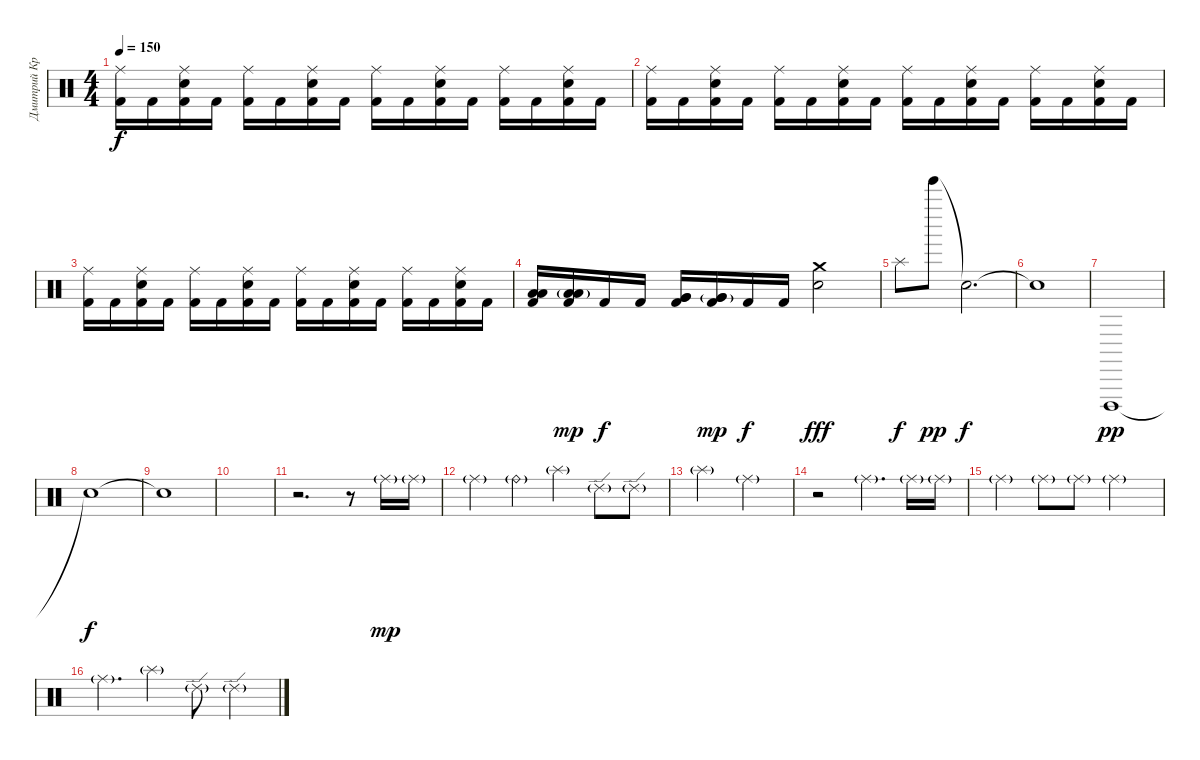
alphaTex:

\track ("Дмитрий Кривенков" "Дмитрий Кр") {instrument percussion}
\staff {score}
\articulation defaults
\ts (4 4)
\tempo 150
\clef neutral
\ks c
("Ride (middle)" "Kick (hit) 2").16{dy f} "Kick (hit) 2".16 ("Ride (middle)" "Electric Snare (hit)" "Kick (hit) 2").16 "Kick (hit) 2".16 ("Ride (middle)" "Kick (hit) 2").16 "Kick (hit) 2".16 ("Ride (middle)" "Electric Snare (hit)" "Kick (hit) 2").16 "Kick (hit) 2".16 ("Ride (middle)" "Kick (hit) 2").16 "Kick (hit) 2".16 ("Ride (middle)" "Electric Snare (hit)" "Kick (hit) 2").16 "Kick (hit) 2".16 ("Ride (middle)" "Kick (hit) 2").16 "Kick (hit) 2".16 ("Ride (middle)" "Electric Snare (hit)" "Kick (hit) 2").16 "Kick (hit) 2".16 |
("Ride (middle)" "Kick (hit) 2").16 "Kick (hit) 2".16 ("Ride (middle)" "Electric Snare (hit)" "Kick (hit) 2").16 "Kick (hit) 2".16 ("Ride (middle)" "Kick (hit) 2").16 "Kick (hit) 2".16 ("Ride (middle)" "Electric Snare (hit)" "Kick (hit) 2").16 "Kick (hit) 2".16 ("Ride (middle)" "Kick (hit) 2").16 "Kick (hit) 2".16 ("Ride (middle)" "Electric Snare (hit)" "Kick (hit) 2").16 "Kick (hit) 2".16 ("Ride (middle)" "Kick (hit) 2").16 "Kick (hit) 2".16 ("Ride (middle)" "Electric Snare (hit)" "Kick (hit) 2").16 "Kick (hit) 2".16 |
("Ride (middle)" "Kick (hit) 2").16 "Kick (hit) 2".16 ("Ride (middle)" "Electric Snare (hit)" "Kick (hit) 2").16 "Kick (hit) 2".16 ("Ride (middle)" "Kick (hit) 2").16 "Kick (hit) 2".16 ("Ride (middle)" "Electric Snare (hit)" "Kick (hit) 2").16 "Kick (hit) 2".16 ("Ride (middle)" "Kick (hit) 2").16 "Kick (hit) 2".16 ("Ride (middle)" "Electric Snare (hit)" "Kick (hit) 2").16 "Kick (hit) 2".16 ("Ride (middle)" "Kick (hit) 2").16 "Kick (hit) 2".16 ("Ride (middle)" "Electric Snare (hit)" "Kick (hit) 2").16 "Kick (hit) 2".16 |
("Low Tom (hit)" "Low Tom (hit)" "Kick (hit) 2").16 ("Low Tom (hit)"{g} "Low Tom (hit)"{g} "Kick (hit) 2").16{dy mp} "Kick (hit) 2".16{dy f} "Kick (hit) 2".16 ("Very Low Tom (hit)" "Very Low Tom (hit)" "Kick (hit) 2").16 ("Very Low Tom (hit)"{g} "Very Low Tom (hit)"{g} "Kick (hit) 2").16{dy mp} "Kick (hit) 2".16{dy f} "Kick (hit) 2".16 ("Crash medium (hit)" "Electric Snare (hit)").2{dy fff} |
"Splash (hit)".8{dy f} "Tinkle Bell (hit)".8{dy pp} "Snare (hit)"{t}.2{d dy f} |
"Snare (hit)"{t}.1{volume 0} |
"Cuica (open)".1{dy pp volume 15} |
"Snare (hit)"{t}.1{dy f} |
"Snare (hit)"{t}.1 |
|
r.2{d} r.8 "Ride (middle)"{g}.16{dy mp} "Ride (middle)"{g}.16 |
"Ride (middle)"{g}.4 "Ride (bell)"{g}.4 "Splash (hit)"{g}.4 "Ride (edge) 2"{g}.8 "Ride (edge) 2"{g}.8 |
"Splash (hit)"{g}.2 "Ride (middle)"{g}.2 |
r.2 "Ride (middle)"{g}.4{d} "Ride (middle)"{g}.16 "Ride (middle)"{g}.16 |
"Ride (middle)"{g}.4 "Ride (middle)"{g}.8 "Ride (middle)"{g}.8 "Ride (middle)"{g}.2 |
"Ride (middle)"{g}.4{d} "Splash (hit)"{g}.4 "Ride (edge) 2"{g}.8 "Ride (edge) 2"{g}.4
